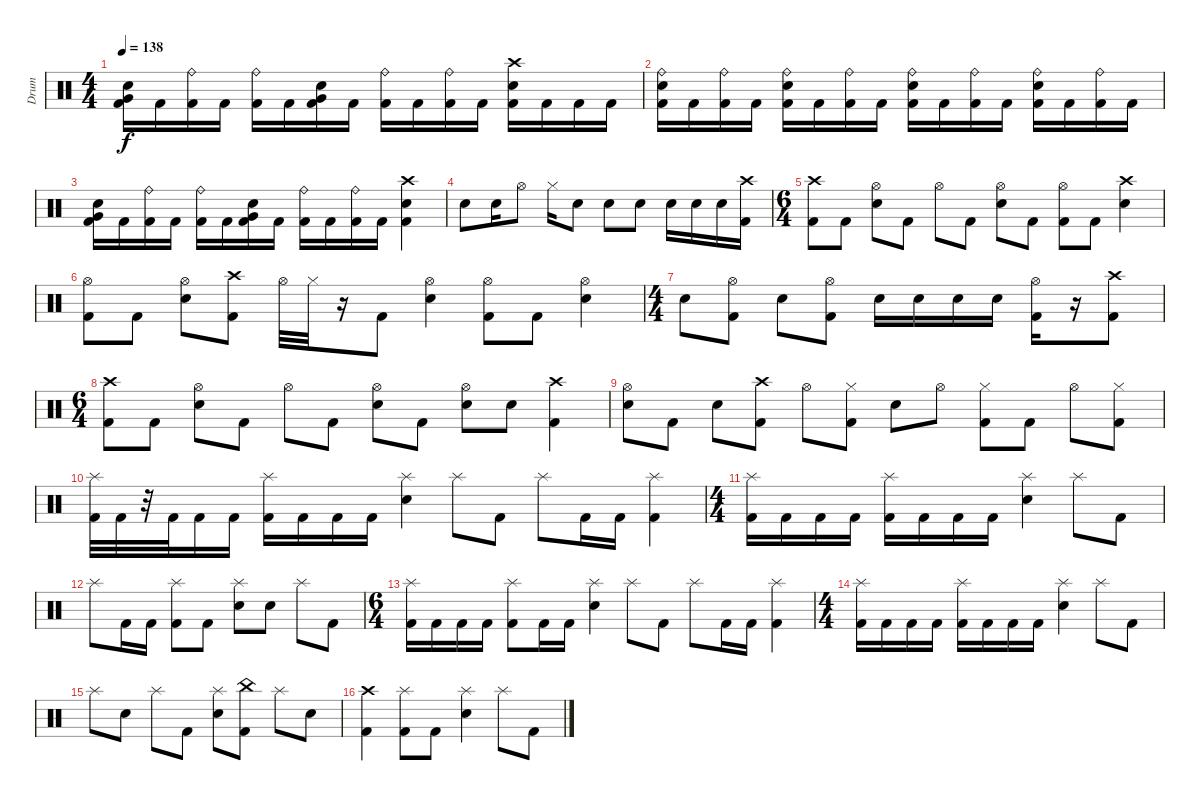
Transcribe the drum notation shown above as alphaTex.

\track ("Drum" "Drum") {instrument percussion}
\staff {score}
\articulation defaults
\ts (4 4)
\tempo 138
\clef neutral
\ks c
("Very Low Tom (hit)" "Electric Snare (hit)" "Kick (hit) 2").16{dy f} "Kick (hit) 2".16 ("Kick (hit) 2" "Ride (bell)").16 "Kick (hit) 2".16 ("Kick (hit) 2" "Ride (bell)").16 "Kick (hit) 2".16 ("Kick (hit) 2" "Electric Snare (hit)" "Very Low Tom (hit)").16 "Kick (hit) 2".16 ("Kick (hit) 2" "Ride (bell)").16 "Kick (hit) 2".16 ("Kick (hit) 2" "Ride (bell)").16 "Kick (hit) 2".16 ("Kick (hit) 2" "Electric Snare (hit)" "Crash high (hit)").16 "Kick (hit) 2".16 "Kick (hit) 2".16 "Kick (hit) 2".16 |
("Kick (hit) 2" "Electric Snare (hit)" "Ride (bell)").16 "Kick (hit) 2".16 ("Kick (hit) 2" "Ride (bell)").16 "Kick (hit) 2".16 ("Kick (hit) 2" "Electric Snare (hit)" "Ride (bell)").16 "Kick (hit) 2".16 ("Kick (hit) 2" "Ride (bell)").16 "Kick (hit) 2".16 ("Kick (hit) 2" "Electric Snare (hit)" "Ride (bell)").16 "Kick (hit) 2".16 ("Kick (hit) 2" "Ride (bell)").16 "Kick (hit) 2".16 ("Kick (hit) 2" "Electric Snare (hit)" "Ride (bell)").16 "Kick (hit) 2".16 ("Kick (hit) 2" "Ride (bell)").16 "Kick (hit) 2".16 |
("Kick (hit) 2" "Electric Snare (hit)" "Very Low Tom (hit)").16 "Kick (hit) 2".16 ("Kick (hit) 2" "Ride (bell)").16 "Kick (hit) 2".16 ("Kick (hit) 2" "Ride (bell)").16 "Kick (hit) 2".16 ("Kick (hit) 2" "Electric Snare (hit)" "Very Low Tom (hit)").16 "Kick (hit) 2".16 ("Kick (hit) 2" "Ride (bell)").16 "Kick (hit) 2".16 ("Kick (hit) 2" "Ride (bell)").16 "Kick (hit) 2".16 ("Kick (hit) 2" "Electric Snare (hit)" "Crash high (hit)").4 |
"Electric Snare (hit)".8 "Electric Snare (hit)".16 "Hi-Hat (open)".8 "Hi-Hat (closed)".16 "Electric Snare (hit)".8 "Electric Snare (hit)".8 "Electric Snare (hit)".8 "Electric Snare (hit)".16 "Electric Snare (hit)".16 "Electric Snare (hit)".16 ("Kick (hit) 2" "Crash high (hit)").16 |
\ts (6 4)
("Crash high (hit)" "Kick (hit) 2").8 "Kick (hit) 2".8 ("Electric Snare (hit)" "Hi-Hat (open)").8 "Kick (hit) 2".8 "Hi-Hat (open)".8 "Kick (hit) 2".8 ("Electric Snare (hit)" "Hi-Hat (open)").8 "Kick (hit) 2".8 ("Kick (hit) 2" "Hi-Hat (open)").8 "Kick (hit) 2".8 ("Electric Snare (hit)" "Crash high (hit)").4 |
("Kick (hit) 2" "Hi-Hat (open)").8 "Kick (hit) 2".8 ("Electric Snare (hit)" "Hi-Hat (open)").8 ("Kick (hit) 2" "Crash high (hit)").8 "Hi-Hat (open)".32 "Hi-Hat (closed)".32 r.16 "Kick (hit) 2".8 ("Hi-Hat (open)" "Electric Snare (hit)").4 ("Hi-Hat (open)" "Kick (hit) 2").8 "Kick (hit) 2".8 ("Hi-Hat (open)" "Electric Snare (hit)").4 |
\ts (4 4)
"Electric Snare (hit)".8 ("Kick (hit) 2" "Hi-Hat (open)").8 "Electric Snare (hit)".8 ("Kick (hit) 2" "Hi-Hat (open)").8 "Electric Snare (hit)".16 "Electric Snare (hit)".16 "Electric Snare (hit)".16 "Electric Snare (hit)".16 ("Kick (hit) 2" "Hi-Hat (open)").16 r.16 ("Crash high (hit)" "Kick (hit) 2").8 |
\ts (6 4)
("Kick (hit) 2" "Crash high (hit)").8 "Kick (hit) 2".8 ("Electric Snare (hit)" "Hi-Hat (open)").8 "Kick (hit) 2".8 "Hi-Hat (open)".8 "Kick (hit) 2".8 ("Electric Snare (hit)" "Hi-Hat (open)").8 "Kick (hit) 2".8 ("Electric Snare (hit)" "Hi-Hat (open)").8 "Electric Snare (hit)".8 ("Crash high (hit)" "Kick (hit) 2").4 |
("Electric Snare (hit)" "Hi-Hat (open)").8 "Kick (hit) 2".8 "Electric Snare (hit)".8 ("Crash high (hit)" "Kick (hit) 2").8 "Hi-Hat (open)".8 ("Kick (hit) 2" "Hi-Hat (closed)").8 "Electric Snare (hit)".8 "Hi-Hat (open)".8 ("Kick (hit) 2" "Hi-Hat (closed)").8 "Kick (hit) 2".8 "Hi-Hat (open)".8 ("Kick (hit) 2" "Hi-Hat (closed)").8 |
("Kick (hit) 2" "Splash (hit)").32 "Kick (hit) 2".32 r.32 "Kick (hit) 2".32 "Kick (hit) 2".16 "Kick (hit) 2".16 ("Kick (hit) 2" "Splash (hit)").16 "Kick (hit) 2".16 "Kick (hit) 2".16 "Kick (hit) 2".16 ("Electric Snare (hit)" "Splash (hit)").4 "Splash (hit)".8 "Kick (hit) 2".8 "Splash (hit)".8 "Kick (hit) 2".16 "Kick (hit) 2".16 ("Splash (hit)" "Kick (hit) 2").4 |
\ts (4 4)
("Splash (hit)" "Kick (hit) 2").16 "Kick (hit) 2".16 "Kick (hit) 2".16 "Kick (hit) 2".16 ("Splash (hit)" "Kick (hit) 2").16 "Kick (hit) 2".16 "Kick (hit) 2".16 "Kick (hit) 2".16 ("Splash (hit)" "Electric Snare (hit)").4 "Splash (hit)".8 "Kick (hit) 2".8 |
"Splash (hit)".8 "Kick (hit) 2".16 "Kick (hit) 2".16 ("Splash (hit)" "Kick (hit) 2").8 "Kick (hit) 2".8 ("Splash (hit)" "Electric Snare (hit)").8 "Electric Snare (hit)".8 "Splash (hit)".8 "Kick (hit) 2".8 |
\ts (6 4)
("Splash (hit)" "Kick (hit) 2").16 "Kick (hit) 2".16 "Kick (hit) 2".16 "Kick (hit) 2".16 ("Kick (hit) 2" "Splash (hit)").8 "Kick (hit) 2".16 "Kick (hit) 2".16 ("Electric Snare (hit)" "Splash (hit)").4 "Splash (hit)".8 "Kick (hit) 2".8 "Splash (hit)".8 "Kick (hit) 2".16 "Kick (hit) 2".16 ("Splash (hit)" "Kick (hit) 2").4 |
\ts (4 4)
("Splash (hit)" "Kick (hit) 2").16 "Kick (hit) 2".16 "Kick (hit) 2".16 "Kick (hit) 2".16 ("Splash (hit)" "Kick (hit) 2").16 "Kick (hit) 2".16 "Kick (hit) 2".16 "Kick (hit) 2".16 ("Splash (hit)" "Electric Snare (hit)").4 "Splash (hit)".8 "Kick (hit) 2".8 |
"Splash (hit)".8 "Electric Snare (hit)".8 "Splash (hit)".8 "Kick (hit) 2".8 ("Electric Snare (hit)" "Splash (hit)").8 ("Kick (hit) 2" "China (hit)").8 "Splash (hit)".8 "Electric Snare (hit)".8 |
("Crash high (hit)" "Kick (hit) 2").4 ("Splash (hit)" "Kick (hit) 2").8 "Kick (hit) 2".8 ("Splash (hit)" "Electric Snare (hit)").4 "Splash (hit)".8 "Kick (hit) 2".8
